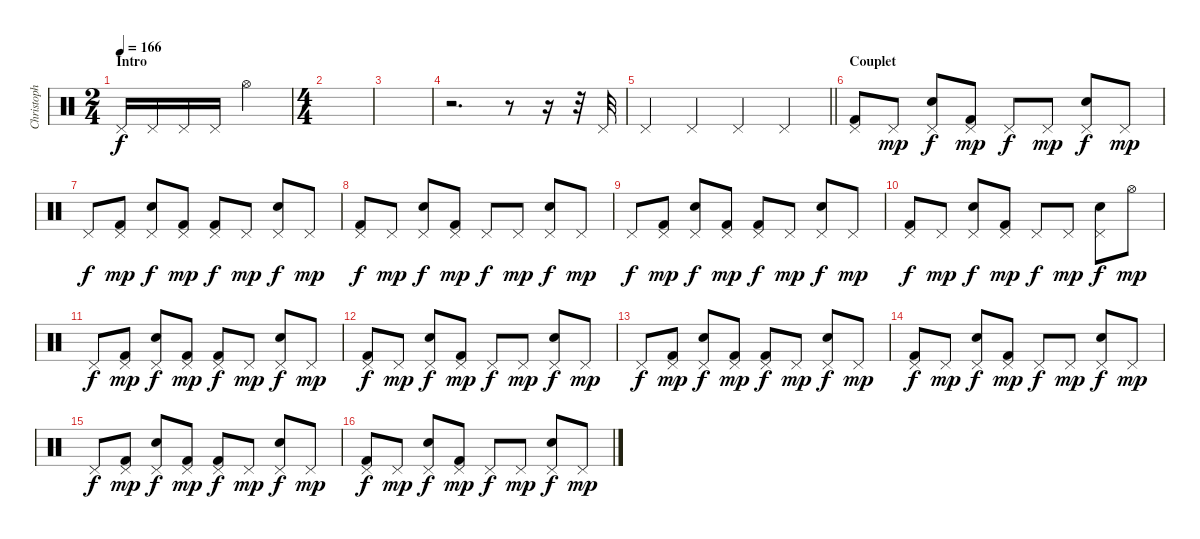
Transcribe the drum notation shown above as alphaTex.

\track ("Christoph" "Christoph") {instrument percussion}
\staff {score}
\articulation defaults
\ts (2 4)
\section ("" "Intro")
\tempo 166
\clef neutral
\ks c "Pedal Hi-Hat (hit)".16{dy f} "Pedal Hi-Hat (hit)".16 "Pedal Hi-Hat (hit)".16 "Pedal Hi-Hat (hit)".16 "Hi-Hat (open)".4
|
\ts (4 4)
|
|
r.2{d} r.8 r.16 r.32 "Pedal Hi-Hat (hit)".32 |
\barLineRight lightlight "Pedal Hi-Hat (hit)".4 "Pedal Hi-Hat (hit)".4 "Pedal Hi-Hat (hit)".4 "Pedal Hi-Hat (hit)".4
|
\section ("" "Couplet")
("Pedal Hi-Hat (hit)" "Kick (hit) 2").8 "Pedal Hi-Hat (hit)".8{dy mp} ("Pedal Hi-Hat (hit)" "Electric Snare (hit)").8{dy f} ("Pedal Hi-Hat (hit)" "Kick (hit) 2").8{dy mp} "Pedal Hi-Hat (hit)".8{dy f} "Pedal Hi-Hat (hit)".8{dy mp} ("Pedal Hi-Hat (hit)" "Electric Snare (hit)").8{dy f} "Pedal Hi-Hat (hit)".8{dy mp} |
"Pedal Hi-Hat (hit)".8{dy f} ("Pedal Hi-Hat (hit)" "Kick (hit) 2").8{dy mp} ("Pedal Hi-Hat (hit)" "Electric Snare (hit)").8{dy f} ("Pedal Hi-Hat (hit)" "Kick (hit) 2").8{dy mp} ("Pedal Hi-Hat (hit)" "Kick (hit) 2").8{dy f} "Pedal Hi-Hat (hit)".8{dy mp} ("Pedal Hi-Hat (hit)" "Electric Snare (hit)").8{dy f} "Pedal Hi-Hat (hit)".8{dy mp} |
("Pedal Hi-Hat (hit)" "Kick (hit) 2").8{dy f} "Pedal Hi-Hat (hit)".8{dy mp} ("Pedal Hi-Hat (hit)" "Electric Snare (hit)").8{dy f} ("Pedal Hi-Hat (hit)" "Kick (hit) 2").8{dy mp} "Pedal Hi-Hat (hit)".8{dy f} "Pedal Hi-Hat (hit)".8{dy mp} ("Pedal Hi-Hat (hit)" "Electric Snare (hit)").8{dy f} "Pedal Hi-Hat (hit)".8{dy mp} |
"Pedal Hi-Hat (hit)".8{dy f} ("Pedal Hi-Hat (hit)" "Kick (hit) 2").8{dy mp} ("Pedal Hi-Hat (hit)" "Electric Snare (hit)").8{dy f} ("Pedal Hi-Hat (hit)" "Kick (hit) 2").8{dy mp} ("Pedal Hi-Hat (hit)" "Kick (hit) 2").8{dy f} "Pedal Hi-Hat (hit)".8{dy mp} ("Pedal Hi-Hat (hit)" "Electric Snare (hit)").8{dy f} "Pedal Hi-Hat (hit)".8{dy mp} |
("Pedal Hi-Hat (hit)" "Kick (hit) 2").8{dy f} "Pedal Hi-Hat (hit)".8{dy mp} ("Pedal Hi-Hat (hit)" "Electric Snare (hit)").8{dy f} ("Pedal Hi-Hat (hit)" "Kick (hit) 2").8{dy mp} "Pedal Hi-Hat (hit)".8{dy f} "Pedal Hi-Hat (hit)".8{dy mp} ("Pedal Hi-Hat (hit)" "Electric Snare (hit)").8{dy f} "Hi-Hat (open)".8{dy mp} |
"Pedal Hi-Hat (hit)".8{dy f} ("Pedal Hi-Hat (hit)" "Kick (hit) 2").8{dy mp} ("Pedal Hi-Hat (hit)" "Electric Snare (hit)").8{dy f} ("Pedal Hi-Hat (hit)" "Kick (hit) 2").8{dy mp} ("Pedal Hi-Hat (hit)" "Kick (hit) 2").8{dy f} "Pedal Hi-Hat (hit)".8{dy mp} ("Pedal Hi-Hat (hit)" "Electric Snare (hit)").8{dy f} "Pedal Hi-Hat (hit)".8{dy mp} |
("Pedal Hi-Hat (hit)" "Kick (hit) 2").8{dy f} "Pedal Hi-Hat (hit)".8{dy mp} ("Pedal Hi-Hat (hit)" "Electric Snare (hit)").8{dy f} ("Pedal Hi-Hat (hit)" "Kick (hit) 2").8{dy mp} "Pedal Hi-Hat (hit)".8{dy f} "Pedal Hi-Hat (hit)".8{dy mp} ("Pedal Hi-Hat (hit)" "Electric Snare (hit)").8{dy f} "Pedal Hi-Hat (hit)".8{dy mp} |
"Pedal Hi-Hat (hit)".8{dy f} ("Pedal Hi-Hat (hit)" "Kick (hit) 2").8{dy mp} ("Pedal Hi-Hat (hit)" "Electric Snare (hit)").8{dy f} ("Pedal Hi-Hat (hit)" "Kick (hit) 2").8{dy mp} ("Pedal Hi-Hat (hit)" "Kick (hit) 2").8{dy f} "Pedal Hi-Hat (hit)".8{dy mp} ("Pedal Hi-Hat (hit)" "Electric Snare (hit)").8{dy f} "Pedal Hi-Hat (hit)".8{dy mp} |
("Pedal Hi-Hat (hit)" "Kick (hit) 2").8{dy f} "Pedal Hi-Hat (hit)".8{dy mp} ("Pedal Hi-Hat (hit)" "Electric Snare (hit)").8{dy f} ("Pedal Hi-Hat (hit)" "Kick (hit) 2").8{dy mp} "Pedal Hi-Hat (hit)".8{dy f} "Pedal Hi-Hat (hit)".8{dy mp} ("Pedal Hi-Hat (hit)" "Electric Snare (hit)").8{dy f} "Pedal Hi-Hat (hit)".8{dy mp} |
"Pedal Hi-Hat (hit)".8{dy f} ("Pedal Hi-Hat (hit)" "Kick (hit) 2").8{dy mp} ("Pedal Hi-Hat (hit)" "Electric Snare (hit)").8{dy f} ("Pedal Hi-Hat (hit)" "Kick (hit) 2").8{dy mp} ("Pedal Hi-Hat (hit)" "Kick (hit) 2").8{dy f} "Pedal Hi-Hat (hit)".8{dy mp} ("Pedal Hi-Hat (hit)" "Electric Snare (hit)").8{dy f} "Pedal Hi-Hat (hit)".8{dy mp} |
("Pedal Hi-Hat (hit)" "Kick (hit) 2").8{dy f} "Pedal Hi-Hat (hit)".8{dy mp} ("Pedal Hi-Hat (hit)" "Electric Snare (hit)").8{dy f} ("Pedal Hi-Hat (hit)" "Kick (hit) 2").8{dy mp} "Pedal Hi-Hat (hit)".8{dy f} "Pedal Hi-Hat (hit)".8{dy mp} ("Pedal Hi-Hat (hit)" "Electric Snare (hit)").8{dy f} "Pedal Hi-Hat (hit)".8{dy mp}
